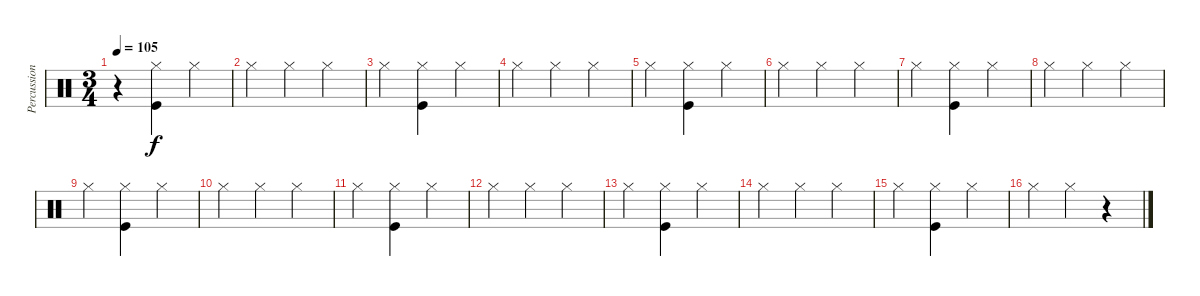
\track ("Percussion" "Percussion") {instrument percussion}
\staff {score}
\articulation defaults
\ts (3 4)
\tempo 105
\clef neutral
\ks c
r.4{dy f} ("Kick (hit)" "Hi-Hat (closed)").4 "Hi-Hat (closed)".4 |
"Hi-Hat (closed)".4 "Hi-Hat (closed)".4 "Hi-Hat (closed)".4 |
"Hi-Hat (closed)".4 ("Kick (hit)" "Hi-Hat (closed)").4 "Hi-Hat (closed)".4 |
"Hi-Hat (closed)".4 "Hi-Hat (closed)".4 "Hi-Hat (closed)".4 |
"Hi-Hat (closed)".4 ("Kick (hit)" "Hi-Hat (closed)").4 "Hi-Hat (closed)".4 |
"Hi-Hat (closed)".4 "Hi-Hat (closed)".4 "Hi-Hat (closed)".4 |
"Hi-Hat (closed)".4 ("Kick (hit)" "Hi-Hat (closed)").4 "Hi-Hat (closed)".4 |
"Hi-Hat (closed)".4 "Hi-Hat (closed)".4 "Hi-Hat (closed)".4 |
"Hi-Hat (closed)".4 ("Kick (hit)" "Hi-Hat (closed)").4 "Hi-Hat (closed)".4 |
"Hi-Hat (closed)".4 "Hi-Hat (closed)".4 "Hi-Hat (closed)".4 |
"Hi-Hat (closed)".4 ("Kick (hit)" "Hi-Hat (closed)").4 "Hi-Hat (closed)".4 |
"Hi-Hat (closed)".4 "Hi-Hat (closed)".4 "Hi-Hat (closed)".4 |
"Hi-Hat (closed)".4 ("Kick (hit)" "Hi-Hat (closed)").4 "Hi-Hat (closed)".4 |
"Hi-Hat (closed)".4 "Hi-Hat (closed)".4 "Hi-Hat (closed)".4 |
"Hi-Hat (closed)".4 ("Kick (hit)" "Hi-Hat (closed)").4 "Hi-Hat (closed)".4 |
"Hi-Hat (closed)".4 "Hi-Hat (closed)".4 r.4
